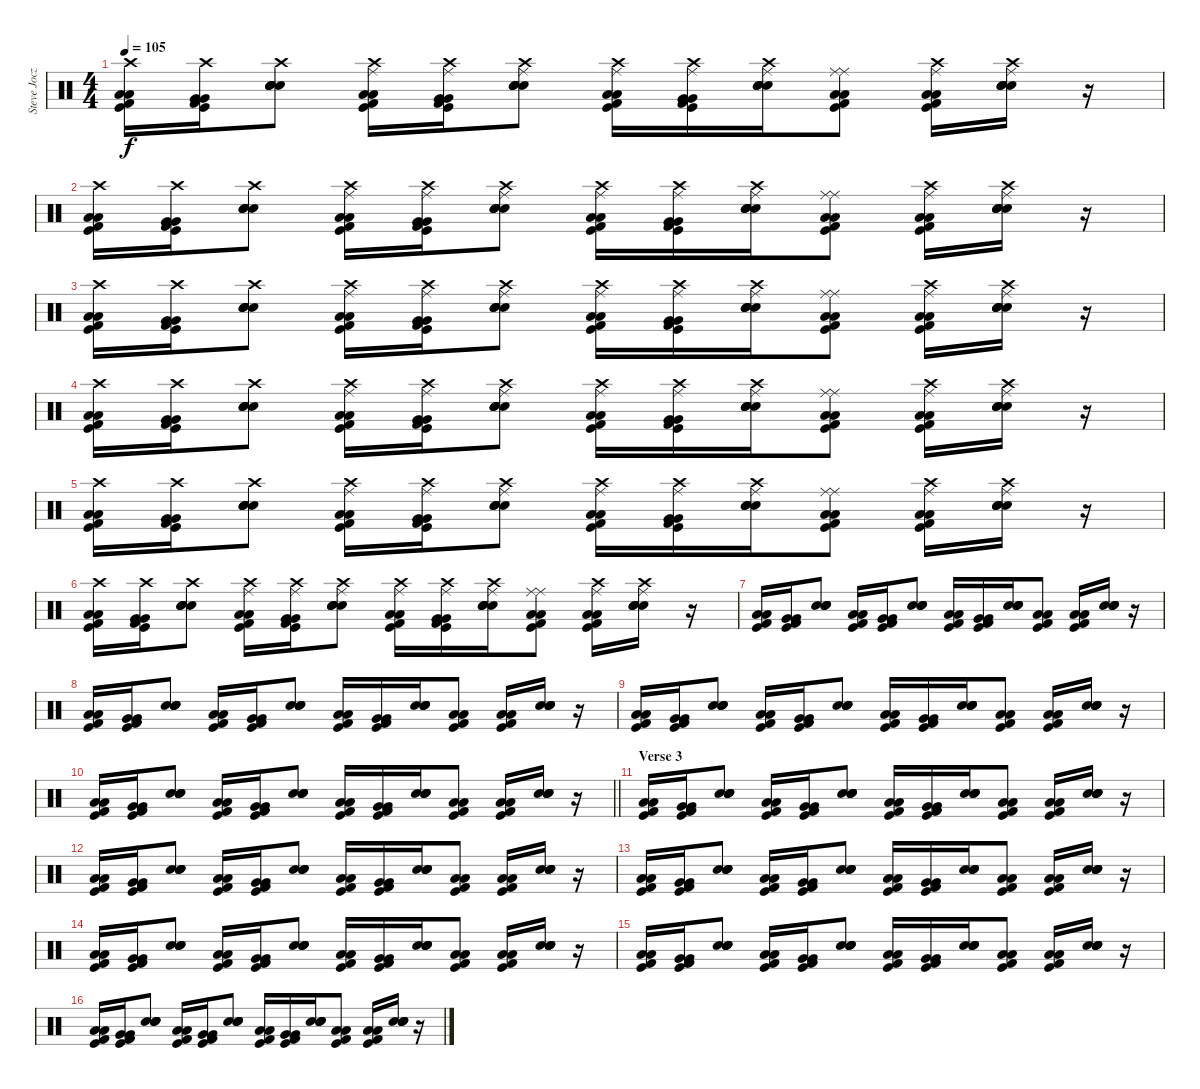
\track ("Steve Jocz" "Steve Jocz") {instrument percussion}
\staff {score}
\articulation defaults
\ts (4 4)
\tempo 105
\clef neutral
\ks c
("Low Floor Tom (hit)" "Crash high (hit)" "Low Floor Tom (hit)" "Kick (hit)" "Kick (hit) 2").16{dy f} ("Very Low Tom (hit)" "Crash high (hit)" "Very Low Tom (hit)" "Kick (hit)" "Kick (hit) 2").16 ("Snare (hit) 2" "Crash high (hit)" "Snare (hit) 2" "Electric Snare (hit)" "Electric Snare (hit)").8 ("Low Floor Tom (hit)" "Ride (middle)" "Low Floor Tom (hit)" "Kick (hit)" "Crash high (hit)" "Kick (hit) 2").16 ("Very Low Tom (hit)" "Ride (middle)" "Very Low Tom (hit)" "Kick (hit)" "Crash high (hit)" "Kick (hit) 2").16 ("Snare (hit) 2" "Ride (middle)" "Snare (hit) 2" "Electric Snare (hit)" "Crash high (hit)" "Electric Snare (hit)").8 ("Low Floor Tom (hit)" "Ride (middle)" "Low Floor Tom (hit)" "Kick (hit)" "Crash high (hit)" "Kick (hit) 2").16 ("Very Low Tom (hit)" "Ride (middle)" "Very Low Tom (hit)" "Kick (hit)" "Crash high (hit)" "Kick (hit) 2").16 ("Snare (hit) 2" "Ride (middle)" "Snare (hit) 2" "Electric Snare (hit)" "Crash high (hit)" "Electric Snare (hit)").16 ("Low Floor Tom (hit)" "Ride (middle)" "Low Floor Tom (hit)" "Kick (hit)" "Ride (middle)" "Kick (hit) 2").8 ("Low Floor Tom (hit)" "Ride (middle)" "Low Floor Tom (hit)" "Kick (hit)" "Crash high (hit)" "Kick (hit) 2").16 ("Snare (hit) 2" "Ride (middle)" "Snare (hit) 2" "Electric Snare (hit)" "Crash high (hit)" "Electric Snare (hit)").16 r.16 |
("Low Floor Tom (hit)" "Crash high (hit)" "Low Floor Tom (hit)" "Kick (hit)" "Kick (hit) 2").16 ("Very Low Tom (hit)" "Crash high (hit)" "Very Low Tom (hit)" "Kick (hit)" "Kick (hit) 2").16 ("Snare (hit) 2" "Crash high (hit)" "Snare (hit) 2" "Electric Snare (hit)" "Electric Snare (hit)").8 ("Low Floor Tom (hit)" "Ride (middle)" "Low Floor Tom (hit)" "Kick (hit)" "Crash high (hit)" "Kick (hit) 2").16 ("Very Low Tom (hit)" "Ride (middle)" "Very Low Tom (hit)" "Kick (hit)" "Crash high (hit)" "Kick (hit) 2").16 ("Snare (hit) 2" "Ride (middle)" "Snare (hit) 2" "Electric Snare (hit)" "Crash high (hit)" "Electric Snare (hit)").8 ("Low Floor Tom (hit)" "Ride (middle)" "Low Floor Tom (hit)" "Kick (hit)" "Crash high (hit)" "Kick (hit) 2").16 ("Very Low Tom (hit)" "Ride (middle)" "Very Low Tom (hit)" "Kick (hit)" "Crash high (hit)" "Kick (hit) 2").16 ("Snare (hit) 2" "Ride (middle)" "Snare (hit) 2" "Electric Snare (hit)" "Crash high (hit)" "Electric Snare (hit)").16 ("Low Floor Tom (hit)" "Ride (middle)" "Low Floor Tom (hit)" "Kick (hit)" "Ride (middle)" "Kick (hit) 2").8 ("Low Floor Tom (hit)" "Ride (middle)" "Low Floor Tom (hit)" "Kick (hit)" "Crash high (hit)" "Kick (hit) 2").16 ("Snare (hit) 2" "Ride (middle)" "Snare (hit) 2" "Electric Snare (hit)" "Crash high (hit)" "Electric Snare (hit)").16 r.16 |
("Low Floor Tom (hit)" "Crash high (hit)" "Low Floor Tom (hit)" "Kick (hit)" "Kick (hit) 2").16 ("Very Low Tom (hit)" "Crash high (hit)" "Very Low Tom (hit)" "Kick (hit)" "Kick (hit) 2").16 ("Snare (hit) 2" "Crash high (hit)" "Snare (hit) 2" "Electric Snare (hit)" "Electric Snare (hit)").8 ("Low Floor Tom (hit)" "Ride (middle)" "Low Floor Tom (hit)" "Kick (hit)" "Crash high (hit)" "Kick (hit) 2").16 ("Very Low Tom (hit)" "Ride (middle)" "Very Low Tom (hit)" "Kick (hit)" "Crash high (hit)" "Kick (hit) 2").16 ("Snare (hit) 2" "Ride (middle)" "Snare (hit) 2" "Electric Snare (hit)" "Crash high (hit)" "Electric Snare (hit)").8 ("Low Floor Tom (hit)" "Ride (middle)" "Low Floor Tom (hit)" "Kick (hit)" "Crash high (hit)" "Kick (hit) 2").16 ("Very Low Tom (hit)" "Ride (middle)" "Very Low Tom (hit)" "Kick (hit)" "Crash high (hit)" "Kick (hit) 2").16 ("Snare (hit) 2" "Ride (middle)" "Snare (hit) 2" "Electric Snare (hit)" "Crash high (hit)" "Electric Snare (hit)").16 ("Low Floor Tom (hit)" "Ride (middle)" "Low Floor Tom (hit)" "Kick (hit)" "Ride (middle)" "Kick (hit) 2").8 ("Low Floor Tom (hit)" "Ride (middle)" "Low Floor Tom (hit)" "Kick (hit)" "Crash high (hit)" "Kick (hit) 2").16 ("Snare (hit) 2" "Ride (middle)" "Snare (hit) 2" "Electric Snare (hit)" "Crash high (hit)" "Electric Snare (hit)").16 r.16 |
("Low Floor Tom (hit)" "Crash high (hit)" "Low Floor Tom (hit)" "Kick (hit)" "Kick (hit) 2").16 ("Very Low Tom (hit)" "Crash high (hit)" "Very Low Tom (hit)" "Kick (hit)" "Kick (hit) 2").16 ("Snare (hit) 2" "Crash high (hit)" "Snare (hit) 2" "Electric Snare (hit)" "Electric Snare (hit)").8 ("Low Floor Tom (hit)" "Ride (middle)" "Low Floor Tom (hit)" "Kick (hit)" "Crash high (hit)" "Kick (hit) 2").16 ("Very Low Tom (hit)" "Ride (middle)" "Very Low Tom (hit)" "Kick (hit)" "Crash high (hit)" "Kick (hit) 2").16 ("Snare (hit) 2" "Ride (middle)" "Snare (hit) 2" "Electric Snare (hit)" "Crash high (hit)" "Electric Snare (hit)").8 ("Low Floor Tom (hit)" "Ride (middle)" "Low Floor Tom (hit)" "Kick (hit)" "Crash high (hit)" "Kick (hit) 2").16 ("Very Low Tom (hit)" "Ride (middle)" "Very Low Tom (hit)" "Kick (hit)" "Crash high (hit)" "Kick (hit) 2").16 ("Snare (hit) 2" "Ride (middle)" "Snare (hit) 2" "Electric Snare (hit)" "Crash high (hit)" "Electric Snare (hit)").16 ("Low Floor Tom (hit)" "Ride (middle)" "Low Floor Tom (hit)" "Kick (hit)" "Ride (middle)" "Kick (hit) 2").8 ("Low Floor Tom (hit)" "Ride (middle)" "Low Floor Tom (hit)" "Kick (hit)" "Crash high (hit)" "Kick (hit) 2").16 ("Snare (hit) 2" "Ride (middle)" "Snare (hit) 2" "Electric Snare (hit)" "Crash high (hit)" "Electric Snare (hit)").16 r.16 |
("Low Floor Tom (hit)" "Crash high (hit)" "Low Floor Tom (hit)" "Kick (hit)" "Kick (hit) 2").16 ("Very Low Tom (hit)" "Crash high (hit)" "Very Low Tom (hit)" "Kick (hit)" "Kick (hit) 2").16 ("Snare (hit) 2" "Crash high (hit)" "Snare (hit) 2" "Electric Snare (hit)" "Electric Snare (hit)").8 ("Low Floor Tom (hit)" "Ride (middle)" "Low Floor Tom (hit)" "Kick (hit)" "Crash high (hit)" "Kick (hit) 2").16 ("Very Low Tom (hit)" "Ride (middle)" "Very Low Tom (hit)" "Kick (hit)" "Crash high (hit)" "Kick (hit) 2").16 ("Snare (hit) 2" "Ride (middle)" "Snare (hit) 2" "Electric Snare (hit)" "Crash high (hit)" "Electric Snare (hit)").8 ("Low Floor Tom (hit)" "Ride (middle)" "Low Floor Tom (hit)" "Kick (hit)" "Crash high (hit)" "Kick (hit) 2").16 ("Very Low Tom (hit)" "Ride (middle)" "Very Low Tom (hit)" "Kick (hit)" "Crash high (hit)" "Kick (hit) 2").16 ("Snare (hit) 2" "Ride (middle)" "Snare (hit) 2" "Electric Snare (hit)" "Crash high (hit)" "Electric Snare (hit)").16 ("Low Floor Tom (hit)" "Ride (middle)" "Low Floor Tom (hit)" "Kick (hit)" "Ride (middle)" "Kick (hit) 2").8 ("Low Floor Tom (hit)" "Ride (middle)" "Low Floor Tom (hit)" "Kick (hit)" "Crash high (hit)" "Kick (hit) 2").16 ("Snare (hit) 2" "Ride (middle)" "Snare (hit) 2" "Electric Snare (hit)" "Crash high (hit)" "Electric Snare (hit)").16 r.16 |
("Low Floor Tom (hit)" "Crash high (hit)" "Low Floor Tom (hit)" "Kick (hit)" "Kick (hit) 2").16 ("Very Low Tom (hit)" "Crash high (hit)" "Very Low Tom (hit)" "Kick (hit)" "Kick (hit) 2").16 ("Snare (hit) 2" "Crash high (hit)" "Snare (hit) 2" "Electric Snare (hit)" "Electric Snare (hit)").8 ("Low Floor Tom (hit)" "Ride (middle)" "Low Floor Tom (hit)" "Kick (hit)" "Crash high (hit)" "Kick (hit) 2").16 ("Very Low Tom (hit)" "Ride (middle)" "Very Low Tom (hit)" "Kick (hit)" "Crash high (hit)" "Kick (hit) 2").16 ("Snare (hit) 2" "Ride (middle)" "Snare (hit) 2" "Electric Snare (hit)" "Crash high (hit)" "Electric Snare (hit)").8 ("Low Floor Tom (hit)" "Ride (middle)" "Low Floor Tom (hit)" "Kick (hit)" "Crash high (hit)" "Kick (hit) 2").16 ("Very Low Tom (hit)" "Ride (middle)" "Very Low Tom (hit)" "Kick (hit)" "Crash high (hit)" "Kick (hit) 2").16 ("Snare (hit) 2" "Ride (middle)" "Snare (hit) 2" "Electric Snare (hit)" "Crash high (hit)" "Electric Snare (hit)").16 ("Low Floor Tom (hit)" "Ride (middle)" "Low Floor Tom (hit)" "Kick (hit)" "Ride (middle)" "Kick (hit) 2").8 ("Low Floor Tom (hit)" "Ride (middle)" "Low Floor Tom (hit)" "Kick (hit)" "Crash high (hit)" "Kick (hit) 2").16 ("Snare (hit) 2" "Ride (middle)" "Snare (hit) 2" "Electric Snare (hit)" "Crash high (hit)" "Electric Snare (hit)").16 r.16 |
("Low Floor Tom (hit)" "Low Floor Tom (hit)" "Kick (hit)" "Kick (hit) 2").16 ("Very Low Tom (hit)" "Very Low Tom (hit)" "Kick (hit)" "Kick (hit) 2").16 ("Snare (hit) 2" "Snare (hit) 2" "Electric Snare (hit)" "Electric Snare (hit)").8 ("Low Floor Tom (hit)" "Low Floor Tom (hit)" "Kick (hit)" "Kick (hit) 2").16 ("Very Low Tom (hit)" "Very Low Tom (hit)" "Kick (hit)" "Kick (hit) 2").16 ("Snare (hit) 2" "Snare (hit) 2" "Electric Snare (hit)" "Electric Snare (hit)").8 ("Low Floor Tom (hit)" "Low Floor Tom (hit)" "Kick (hit)" "Kick (hit) 2").16 ("Very Low Tom (hit)" "Very Low Tom (hit)" "Kick (hit)" "Kick (hit) 2").16 ("Snare (hit) 2" "Snare (hit) 2" "Electric Snare (hit)" "Electric Snare (hit)").16 ("Low Floor Tom (hit)" "Low Floor Tom (hit)" "Kick (hit)" "Kick (hit) 2").8 ("Low Floor Tom (hit)" "Low Floor Tom (hit)" "Kick (hit)" "Kick (hit) 2").16 ("Snare (hit) 2" "Snare (hit) 2" "Electric Snare (hit)" "Electric Snare (hit)").16 r.16 |
("Low Floor Tom (hit)" "Low Floor Tom (hit)" "Kick (hit)" "Kick (hit) 2").16 ("Very Low Tom (hit)" "Very Low Tom (hit)" "Kick (hit)" "Kick (hit) 2").16 ("Snare (hit) 2" "Snare (hit) 2" "Electric Snare (hit)" "Electric Snare (hit)").8 ("Low Floor Tom (hit)" "Low Floor Tom (hit)" "Kick (hit)" "Kick (hit) 2").16 ("Very Low Tom (hit)" "Very Low Tom (hit)" "Kick (hit)" "Kick (hit) 2").16 ("Snare (hit) 2" "Snare (hit) 2" "Electric Snare (hit)" "Electric Snare (hit)").8 ("Low Floor Tom (hit)" "Low Floor Tom (hit)" "Kick (hit)" "Kick (hit) 2").16 ("Very Low Tom (hit)" "Very Low Tom (hit)" "Kick (hit)" "Kick (hit) 2").16 ("Snare (hit) 2" "Snare (hit) 2" "Electric Snare (hit)" "Electric Snare (hit)").16 ("Low Floor Tom (hit)" "Low Floor Tom (hit)" "Kick (hit)" "Kick (hit) 2").8 ("Low Floor Tom (hit)" "Low Floor Tom (hit)" "Kick (hit)" "Kick (hit) 2").16 ("Snare (hit) 2" "Snare (hit) 2" "Electric Snare (hit)" "Electric Snare (hit)").16 r.16 |
("Low Floor Tom (hit)" "Low Floor Tom (hit)" "Kick (hit)" "Kick (hit) 2").16 ("Very Low Tom (hit)" "Very Low Tom (hit)" "Kick (hit)" "Kick (hit) 2").16 ("Snare (hit) 2" "Snare (hit) 2" "Electric Snare (hit)" "Electric Snare (hit)").8 ("Low Floor Tom (hit)" "Low Floor Tom (hit)" "Kick (hit)" "Kick (hit) 2").16 ("Very Low Tom (hit)" "Very Low Tom (hit)" "Kick (hit)" "Kick (hit) 2").16 ("Snare (hit) 2" "Snare (hit) 2" "Electric Snare (hit)" "Electric Snare (hit)").8 ("Low Floor Tom (hit)" "Low Floor Tom (hit)" "Kick (hit)" "Kick (hit) 2").16 ("Very Low Tom (hit)" "Very Low Tom (hit)" "Kick (hit)" "Kick (hit) 2").16 ("Snare (hit) 2" "Snare (hit) 2" "Electric Snare (hit)" "Electric Snare (hit)").16 ("Low Floor Tom (hit)" "Low Floor Tom (hit)" "Kick (hit)" "Kick (hit) 2").8 ("Low Floor Tom (hit)" "Low Floor Tom (hit)" "Kick (hit)" "Kick (hit) 2").16 ("Snare (hit) 2" "Snare (hit) 2" "Electric Snare (hit)" "Electric Snare (hit)").16 r.16 |
\barLineRight lightlight
("Low Floor Tom (hit)" "Low Floor Tom (hit)" "Kick (hit)" "Kick (hit) 2").16 ("Very Low Tom (hit)" "Very Low Tom (hit)" "Kick (hit)" "Kick (hit) 2").16 ("Snare (hit) 2" "Snare (hit) 2" "Electric Snare (hit)" "Electric Snare (hit)").8 ("Low Floor Tom (hit)" "Low Floor Tom (hit)" "Kick (hit)" "Kick (hit) 2").16 ("Very Low Tom (hit)" "Very Low Tom (hit)" "Kick (hit)" "Kick (hit) 2").16 ("Snare (hit) 2" "Snare (hit) 2" "Electric Snare (hit)" "Electric Snare (hit)").8 ("Low Floor Tom (hit)" "Low Floor Tom (hit)" "Kick (hit)" "Kick (hit) 2").16 ("Very Low Tom (hit)" "Very Low Tom (hit)" "Kick (hit)" "Kick (hit) 2").16 ("Snare (hit) 2" "Snare (hit) 2" "Electric Snare (hit)" "Electric Snare (hit)").16 ("Low Floor Tom (hit)" "Low Floor Tom (hit)" "Kick (hit)" "Kick (hit) 2").8 ("Low Floor Tom (hit)" "Low Floor Tom (hit)" "Kick (hit)" "Kick (hit) 2").16 ("Snare (hit) 2" "Snare (hit) 2" "Electric Snare (hit)" "Electric Snare (hit)").16 r.16 |
\section ("" "Verse 3")
("Low Floor Tom (hit)" "Low Floor Tom (hit)" "Kick (hit)" "Kick (hit) 2").16 ("Very Low Tom (hit)" "Very Low Tom (hit)" "Kick (hit)" "Kick (hit) 2").16 ("Snare (hit) 2" "Snare (hit) 2" "Electric Snare (hit)" "Electric Snare (hit)").8 ("Low Floor Tom (hit)" "Low Floor Tom (hit)" "Kick (hit)" "Kick (hit) 2").16 ("Very Low Tom (hit)" "Very Low Tom (hit)" "Kick (hit)" "Kick (hit) 2").16 ("Snare (hit) 2" "Snare (hit) 2" "Electric Snare (hit)" "Electric Snare (hit)").8 ("Low Floor Tom (hit)" "Low Floor Tom (hit)" "Kick (hit)" "Kick (hit) 2").16 ("Very Low Tom (hit)" "Very Low Tom (hit)" "Kick (hit)" "Kick (hit) 2").16 ("Snare (hit) 2" "Snare (hit) 2" "Electric Snare (hit)" "Electric Snare (hit)").16 ("Low Floor Tom (hit)" "Low Floor Tom (hit)" "Kick (hit)" "Kick (hit) 2").8 ("Low Floor Tom (hit)" "Low Floor Tom (hit)" "Kick (hit)" "Kick (hit) 2").16 ("Snare (hit) 2" "Snare (hit) 2" "Electric Snare (hit)" "Electric Snare (hit)").16 r.16 |
("Low Floor Tom (hit)" "Low Floor Tom (hit)" "Kick (hit)" "Kick (hit) 2").16 ("Very Low Tom (hit)" "Very Low Tom (hit)" "Kick (hit)" "Kick (hit) 2").16 ("Snare (hit) 2" "Snare (hit) 2" "Electric Snare (hit)" "Electric Snare (hit)").8 ("Low Floor Tom (hit)" "Low Floor Tom (hit)" "Kick (hit)" "Kick (hit) 2").16 ("Very Low Tom (hit)" "Very Low Tom (hit)" "Kick (hit)" "Kick (hit) 2").16 ("Snare (hit) 2" "Snare (hit) 2" "Electric Snare (hit)" "Electric Snare (hit)").8 ("Low Floor Tom (hit)" "Low Floor Tom (hit)" "Kick (hit)" "Kick (hit) 2").16 ("Very Low Tom (hit)" "Very Low Tom (hit)" "Kick (hit)" "Kick (hit) 2").16 ("Snare (hit) 2" "Snare (hit) 2" "Electric Snare (hit)" "Electric Snare (hit)").16 ("Low Floor Tom (hit)" "Low Floor Tom (hit)" "Kick (hit)" "Kick (hit) 2").8 ("Low Floor Tom (hit)" "Low Floor Tom (hit)" "Kick (hit)" "Kick (hit) 2").16 ("Snare (hit) 2" "Snare (hit) 2" "Electric Snare (hit)" "Electric Snare (hit)").16 r.16 |
("Low Floor Tom (hit)" "Low Floor Tom (hit)" "Kick (hit)" "Kick (hit) 2").16 ("Very Low Tom (hit)" "Very Low Tom (hit)" "Kick (hit)" "Kick (hit) 2").16 ("Snare (hit) 2" "Snare (hit) 2" "Electric Snare (hit)" "Electric Snare (hit)").8 ("Low Floor Tom (hit)" "Low Floor Tom (hit)" "Kick (hit)" "Kick (hit) 2").16 ("Very Low Tom (hit)" "Very Low Tom (hit)" "Kick (hit)" "Kick (hit) 2").16 ("Snare (hit) 2" "Snare (hit) 2" "Electric Snare (hit)" "Electric Snare (hit)").8 ("Low Floor Tom (hit)" "Low Floor Tom (hit)" "Kick (hit)" "Kick (hit) 2").16 ("Very Low Tom (hit)" "Very Low Tom (hit)" "Kick (hit)" "Kick (hit) 2").16 ("Snare (hit) 2" "Snare (hit) 2" "Electric Snare (hit)" "Electric Snare (hit)").16 ("Low Floor Tom (hit)" "Low Floor Tom (hit)" "Kick (hit)" "Kick (hit) 2").8 ("Low Floor Tom (hit)" "Low Floor Tom (hit)" "Kick (hit)" "Kick (hit) 2").16 ("Snare (hit) 2" "Snare (hit) 2" "Electric Snare (hit)" "Electric Snare (hit)").16 r.16 |
("Low Floor Tom (hit)" "Low Floor Tom (hit)" "Kick (hit)" "Kick (hit) 2").16 ("Very Low Tom (hit)" "Very Low Tom (hit)" "Kick (hit)" "Kick (hit) 2").16 ("Snare (hit) 2" "Snare (hit) 2" "Electric Snare (hit)" "Electric Snare (hit)").8 ("Low Floor Tom (hit)" "Low Floor Tom (hit)" "Kick (hit)" "Kick (hit) 2").16 ("Very Low Tom (hit)" "Very Low Tom (hit)" "Kick (hit)" "Kick (hit) 2").16 ("Snare (hit) 2" "Snare (hit) 2" "Electric Snare (hit)" "Electric Snare (hit)").8 ("Low Floor Tom (hit)" "Low Floor Tom (hit)" "Kick (hit)" "Kick (hit) 2").16 ("Very Low Tom (hit)" "Very Low Tom (hit)" "Kick (hit)" "Kick (hit) 2").16 ("Snare (hit) 2" "Snare (hit) 2" "Electric Snare (hit)" "Electric Snare (hit)").16 ("Low Floor Tom (hit)" "Low Floor Tom (hit)" "Kick (hit)" "Kick (hit) 2").8 ("Low Floor Tom (hit)" "Low Floor Tom (hit)" "Kick (hit)" "Kick (hit) 2").16 ("Snare (hit) 2" "Snare (hit) 2" "Electric Snare (hit)" "Electric Snare (hit)").16 r.16 |
("Low Floor Tom (hit)" "Low Floor Tom (hit)" "Kick (hit)" "Kick (hit) 2").16 ("Very Low Tom (hit)" "Very Low Tom (hit)" "Kick (hit)" "Kick (hit) 2").16 ("Snare (hit) 2" "Snare (hit) 2" "Electric Snare (hit)" "Electric Snare (hit)").8 ("Low Floor Tom (hit)" "Low Floor Tom (hit)" "Kick (hit)" "Kick (hit) 2").16 ("Very Low Tom (hit)" "Very Low Tom (hit)" "Kick (hit)" "Kick (hit) 2").16 ("Snare (hit) 2" "Snare (hit) 2" "Electric Snare (hit)" "Electric Snare (hit)").8 ("Low Floor Tom (hit)" "Low Floor Tom (hit)" "Kick (hit)" "Kick (hit) 2").16 ("Very Low Tom (hit)" "Very Low Tom (hit)" "Kick (hit)" "Kick (hit) 2").16 ("Snare (hit) 2" "Snare (hit) 2" "Electric Snare (hit)" "Electric Snare (hit)").16 ("Low Floor Tom (hit)" "Low Floor Tom (hit)" "Kick (hit)" "Kick (hit) 2").8 ("Low Floor Tom (hit)" "Low Floor Tom (hit)" "Kick (hit)" "Kick (hit) 2").16 ("Snare (hit) 2" "Snare (hit) 2" "Electric Snare (hit)" "Electric Snare (hit)").16 r.16 |
("Low Floor Tom (hit)" "Low Floor Tom (hit)" "Kick (hit)" "Kick (hit) 2").16 ("Very Low Tom (hit)" "Very Low Tom (hit)" "Kick (hit)" "Kick (hit) 2").16 ("Snare (hit) 2" "Snare (hit) 2" "Electric Snare (hit)" "Electric Snare (hit)").8 ("Low Floor Tom (hit)" "Low Floor Tom (hit)" "Kick (hit)" "Kick (hit) 2").16 ("Very Low Tom (hit)" "Very Low Tom (hit)" "Kick (hit)" "Kick (hit) 2").16 ("Snare (hit) 2" "Snare (hit) 2" "Electric Snare (hit)" "Electric Snare (hit)").8 ("Low Floor Tom (hit)" "Low Floor Tom (hit)" "Kick (hit)" "Kick (hit) 2").16 ("Very Low Tom (hit)" "Very Low Tom (hit)" "Kick (hit)" "Kick (hit) 2").16 ("Snare (hit) 2" "Snare (hit) 2" "Electric Snare (hit)" "Electric Snare (hit)").16 ("Low Floor Tom (hit)" "Low Floor Tom (hit)" "Kick (hit)" "Kick (hit) 2").8 ("Low Floor Tom (hit)" "Low Floor Tom (hit)" "Kick (hit)" "Kick (hit) 2").16 ("Snare (hit) 2" "Snare (hit) 2" "Electric Snare (hit)" "Electric Snare (hit)").16 r.16
